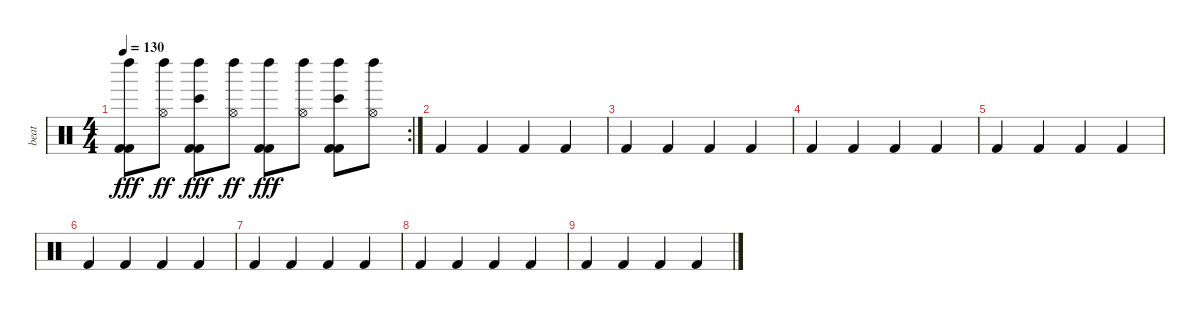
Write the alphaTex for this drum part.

\track ("beat" "beat") {instrument percussion}
\staff {score}
\articulation defaults
\rc 2
\ts (4 4)
\tempo 130
\clef neutral
\ks c
("Kick (hit) 2" "Kick (hit) 2" "Left Maraca (hit)").8{dy fff} ("Left Maraca (hit)" "Hi-Hat (open)").8{dy ff} ("Kick (hit) 2" "Kick (hit) 2" "Bongo High (hit)" "Left Maraca (hit)").8{dy fff} ("Left Maraca (hit)" "Hi-Hat (open)").8{dy ff} ("Kick (hit) 2" "Kick (hit) 2" "Left Maraca (hit)").8{dy fff} ("Left Maraca (hit)" "Hi-Hat (open)").8 ("Kick (hit) 2" "Kick (hit) 2" "Bongo High (hit)" "Left Maraca (hit)").8 ("Left Maraca (hit)" "Hi-Hat (open)").8 |
"Kick (hit) 2".4 "Kick (hit) 2".4 "Kick (hit) 2".4 "Kick (hit) 2".4 |
"Kick (hit) 2".4 "Kick (hit) 2".4 "Kick (hit) 2".4 "Kick (hit) 2".4 |
"Kick (hit) 2".4 "Kick (hit) 2".4 "Kick (hit) 2".4 "Kick (hit) 2".4 |
"Kick (hit) 2".4 "Kick (hit) 2".4 "Kick (hit) 2".4 "Kick (hit) 2".4 |
"Kick (hit) 2".4 "Kick (hit) 2".4 "Kick (hit) 2".4 "Kick (hit) 2".4 |
"Kick (hit) 2".4 "Kick (hit) 2".4 "Kick (hit) 2".4 "Kick (hit) 2".4 |
"Kick (hit) 2".4 "Kick (hit) 2".4 "Kick (hit) 2".4 "Kick (hit) 2".4 |
"Kick (hit) 2".4 "Kick (hit) 2".4 "Kick (hit) 2".4 "Kick (hit) 2".4
